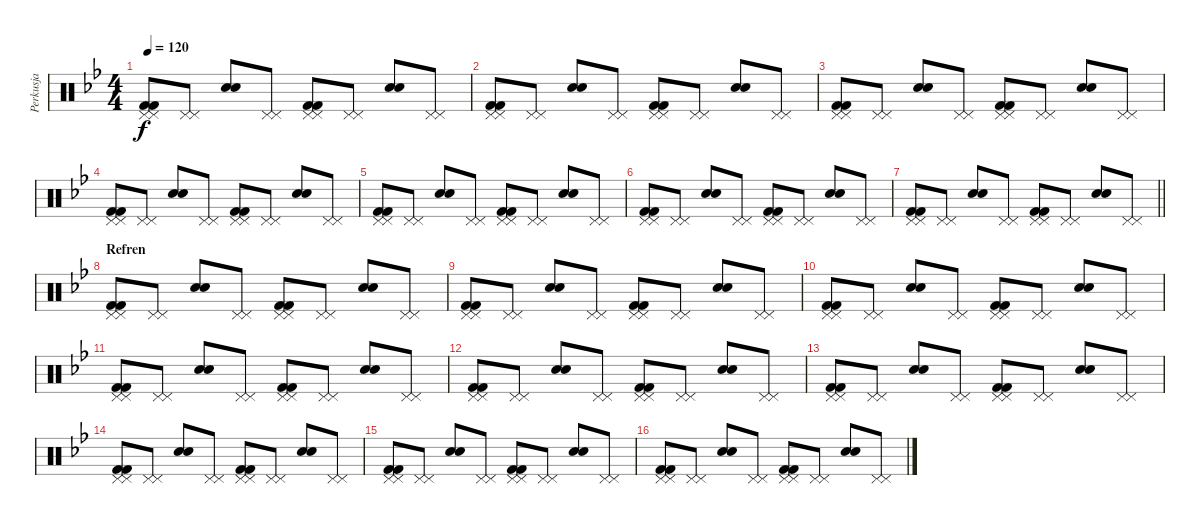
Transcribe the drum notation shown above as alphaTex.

\track ("Perkusja" "Perkusja") {instrument percussion}
\staff {score}
\articulation defaults
\ts (4 4)
\tempo 120
\clef neutral
\ks bb
("Pedal Hi-Hat (hit)" "Pedal Hi-Hat (hit)" "Kick (hit) 2" "Kick (hit) 2").8{dy f} ("Pedal Hi-Hat (hit)" "Pedal Hi-Hat (hit)").8 ("Snare (hit) 2" "Snare (hit) 2").8 ("Pedal Hi-Hat (hit)" "Pedal Hi-Hat (hit)").8 ("Pedal Hi-Hat (hit)" "Pedal Hi-Hat (hit)" "Kick (hit) 2" "Kick (hit) 2").8 ("Pedal Hi-Hat (hit)" "Pedal Hi-Hat (hit)").8 ("Snare (hit) 2" "Snare (hit) 2").8 ("Pedal Hi-Hat (hit)" "Pedal Hi-Hat (hit)").8 |
("Pedal Hi-Hat (hit)" "Pedal Hi-Hat (hit)" "Kick (hit) 2" "Kick (hit) 2").8 ("Pedal Hi-Hat (hit)" "Pedal Hi-Hat (hit)").8 ("Snare (hit) 2" "Snare (hit) 2").8 ("Pedal Hi-Hat (hit)" "Pedal Hi-Hat (hit)").8 ("Pedal Hi-Hat (hit)" "Pedal Hi-Hat (hit)" "Kick (hit) 2" "Kick (hit) 2").8 ("Pedal Hi-Hat (hit)" "Pedal Hi-Hat (hit)").8 ("Snare (hit) 2" "Snare (hit) 2").8 ("Pedal Hi-Hat (hit)" "Pedal Hi-Hat (hit)").8 |
("Pedal Hi-Hat (hit)" "Pedal Hi-Hat (hit)" "Kick (hit) 2" "Kick (hit) 2").8 ("Pedal Hi-Hat (hit)" "Pedal Hi-Hat (hit)").8 ("Snare (hit) 2" "Snare (hit) 2").8 ("Pedal Hi-Hat (hit)" "Pedal Hi-Hat (hit)").8 ("Pedal Hi-Hat (hit)" "Pedal Hi-Hat (hit)" "Kick (hit) 2" "Kick (hit) 2").8 ("Pedal Hi-Hat (hit)" "Pedal Hi-Hat (hit)").8 ("Snare (hit) 2" "Snare (hit) 2").8 ("Pedal Hi-Hat (hit)" "Pedal Hi-Hat (hit)").8 |
("Pedal Hi-Hat (hit)" "Pedal Hi-Hat (hit)" "Kick (hit) 2" "Kick (hit) 2").8 ("Pedal Hi-Hat (hit)" "Pedal Hi-Hat (hit)").8 ("Snare (hit) 2" "Snare (hit) 2").8 ("Pedal Hi-Hat (hit)" "Pedal Hi-Hat (hit)").8 ("Pedal Hi-Hat (hit)" "Pedal Hi-Hat (hit)" "Kick (hit) 2" "Kick (hit) 2").8 ("Pedal Hi-Hat (hit)" "Pedal Hi-Hat (hit)").8 ("Snare (hit) 2" "Snare (hit) 2").8 ("Pedal Hi-Hat (hit)" "Pedal Hi-Hat (hit)").8 |
("Pedal Hi-Hat (hit)" "Pedal Hi-Hat (hit)" "Kick (hit) 2" "Kick (hit) 2").8 ("Pedal Hi-Hat (hit)" "Pedal Hi-Hat (hit)").8 ("Snare (hit) 2" "Snare (hit) 2").8 ("Pedal Hi-Hat (hit)" "Pedal Hi-Hat (hit)").8 ("Pedal Hi-Hat (hit)" "Pedal Hi-Hat (hit)" "Kick (hit) 2" "Kick (hit) 2").8 ("Pedal Hi-Hat (hit)" "Pedal Hi-Hat (hit)").8 ("Snare (hit) 2" "Snare (hit) 2").8 ("Pedal Hi-Hat (hit)" "Pedal Hi-Hat (hit)").8 |
("Pedal Hi-Hat (hit)" "Pedal Hi-Hat (hit)" "Kick (hit) 2" "Kick (hit) 2").8 ("Pedal Hi-Hat (hit)" "Pedal Hi-Hat (hit)").8 ("Snare (hit) 2" "Snare (hit) 2").8 ("Pedal Hi-Hat (hit)" "Pedal Hi-Hat (hit)").8 ("Pedal Hi-Hat (hit)" "Pedal Hi-Hat (hit)" "Kick (hit) 2" "Kick (hit) 2").8 ("Pedal Hi-Hat (hit)" "Pedal Hi-Hat (hit)").8 ("Snare (hit) 2" "Snare (hit) 2").8 ("Pedal Hi-Hat (hit)" "Pedal Hi-Hat (hit)").8 |
\barLineRight lightlight
("Pedal Hi-Hat (hit)" "Pedal Hi-Hat (hit)" "Kick (hit) 2" "Kick (hit) 2").8 ("Pedal Hi-Hat (hit)" "Pedal Hi-Hat (hit)").8 ("Snare (hit) 2" "Snare (hit) 2").8 ("Pedal Hi-Hat (hit)" "Pedal Hi-Hat (hit)").8 ("Pedal Hi-Hat (hit)" "Pedal Hi-Hat (hit)" "Kick (hit) 2" "Kick (hit) 2").8 ("Pedal Hi-Hat (hit)" "Pedal Hi-Hat (hit)").8 ("Snare (hit) 2" "Snare (hit) 2").8 ("Pedal Hi-Hat (hit)" "Pedal Hi-Hat (hit)").8 |
\section ("" "Refren")
("Pedal Hi-Hat (hit)" "Pedal Hi-Hat (hit)" "Kick (hit) 2" "Kick (hit) 2").8 ("Pedal Hi-Hat (hit)" "Pedal Hi-Hat (hit)").8 ("Snare (hit) 2" "Snare (hit) 2").8 ("Pedal Hi-Hat (hit)" "Pedal Hi-Hat (hit)").8 ("Pedal Hi-Hat (hit)" "Pedal Hi-Hat (hit)" "Kick (hit) 2" "Kick (hit) 2").8 ("Pedal Hi-Hat (hit)" "Pedal Hi-Hat (hit)").8 ("Snare (hit) 2" "Snare (hit) 2").8 ("Pedal Hi-Hat (hit)" "Pedal Hi-Hat (hit)").8 |
("Pedal Hi-Hat (hit)" "Pedal Hi-Hat (hit)" "Kick (hit) 2" "Kick (hit) 2").8 ("Pedal Hi-Hat (hit)" "Pedal Hi-Hat (hit)").8 ("Snare (hit) 2" "Snare (hit) 2").8 ("Pedal Hi-Hat (hit)" "Pedal Hi-Hat (hit)").8 ("Pedal Hi-Hat (hit)" "Pedal Hi-Hat (hit)" "Kick (hit) 2" "Kick (hit) 2").8 ("Pedal Hi-Hat (hit)" "Pedal Hi-Hat (hit)").8 ("Snare (hit) 2" "Snare (hit) 2").8 ("Pedal Hi-Hat (hit)" "Pedal Hi-Hat (hit)").8 |
("Pedal Hi-Hat (hit)" "Pedal Hi-Hat (hit)" "Kick (hit) 2" "Kick (hit) 2").8 ("Pedal Hi-Hat (hit)" "Pedal Hi-Hat (hit)").8 ("Snare (hit) 2" "Snare (hit) 2").8 ("Pedal Hi-Hat (hit)" "Pedal Hi-Hat (hit)").8 ("Pedal Hi-Hat (hit)" "Pedal Hi-Hat (hit)" "Kick (hit) 2" "Kick (hit) 2").8 ("Pedal Hi-Hat (hit)" "Pedal Hi-Hat (hit)").8 ("Snare (hit) 2" "Snare (hit) 2").8 ("Pedal Hi-Hat (hit)" "Pedal Hi-Hat (hit)").8 |
("Pedal Hi-Hat (hit)" "Pedal Hi-Hat (hit)" "Kick (hit) 2" "Kick (hit) 2").8 ("Pedal Hi-Hat (hit)" "Pedal Hi-Hat (hit)").8 ("Snare (hit) 2" "Snare (hit) 2").8 ("Pedal Hi-Hat (hit)" "Pedal Hi-Hat (hit)").8 ("Pedal Hi-Hat (hit)" "Pedal Hi-Hat (hit)" "Kick (hit) 2" "Kick (hit) 2").8 ("Pedal Hi-Hat (hit)" "Pedal Hi-Hat (hit)").8 ("Snare (hit) 2" "Snare (hit) 2").8 ("Pedal Hi-Hat (hit)" "Pedal Hi-Hat (hit)").8 |
("Pedal Hi-Hat (hit)" "Pedal Hi-Hat (hit)" "Kick (hit) 2" "Kick (hit) 2").8 ("Pedal Hi-Hat (hit)" "Pedal Hi-Hat (hit)").8 ("Snare (hit) 2" "Snare (hit) 2").8 ("Pedal Hi-Hat (hit)" "Pedal Hi-Hat (hit)").8 ("Pedal Hi-Hat (hit)" "Pedal Hi-Hat (hit)" "Kick (hit) 2" "Kick (hit) 2").8 ("Pedal Hi-Hat (hit)" "Pedal Hi-Hat (hit)").8 ("Snare (hit) 2" "Snare (hit) 2").8 ("Pedal Hi-Hat (hit)" "Pedal Hi-Hat (hit)").8 |
("Pedal Hi-Hat (hit)" "Pedal Hi-Hat (hit)" "Kick (hit) 2" "Kick (hit) 2").8 ("Pedal Hi-Hat (hit)" "Pedal Hi-Hat (hit)").8 ("Snare (hit) 2" "Snare (hit) 2").8 ("Pedal Hi-Hat (hit)" "Pedal Hi-Hat (hit)").8 ("Pedal Hi-Hat (hit)" "Pedal Hi-Hat (hit)" "Kick (hit) 2" "Kick (hit) 2").8 ("Pedal Hi-Hat (hit)" "Pedal Hi-Hat (hit)").8 ("Snare (hit) 2" "Snare (hit) 2").8 ("Pedal Hi-Hat (hit)" "Pedal Hi-Hat (hit)").8 |
("Pedal Hi-Hat (hit)" "Pedal Hi-Hat (hit)" "Kick (hit) 2" "Kick (hit) 2").8 ("Pedal Hi-Hat (hit)" "Pedal Hi-Hat (hit)").8 ("Snare (hit) 2" "Snare (hit) 2").8 ("Pedal Hi-Hat (hit)" "Pedal Hi-Hat (hit)").8 ("Pedal Hi-Hat (hit)" "Pedal Hi-Hat (hit)" "Kick (hit) 2" "Kick (hit) 2").8 ("Pedal Hi-Hat (hit)" "Pedal Hi-Hat (hit)").8 ("Snare (hit) 2" "Snare (hit) 2").8 ("Pedal Hi-Hat (hit)" "Pedal Hi-Hat (hit)").8 |
("Pedal Hi-Hat (hit)" "Pedal Hi-Hat (hit)" "Kick (hit) 2" "Kick (hit) 2").8 ("Pedal Hi-Hat (hit)" "Pedal Hi-Hat (hit)").8 ("Snare (hit) 2" "Snare (hit) 2").8 ("Pedal Hi-Hat (hit)" "Pedal Hi-Hat (hit)").8 ("Pedal Hi-Hat (hit)" "Pedal Hi-Hat (hit)" "Kick (hit) 2" "Kick (hit) 2").8 ("Pedal Hi-Hat (hit)" "Pedal Hi-Hat (hit)").8 ("Snare (hit) 2" "Snare (hit) 2").8 ("Pedal Hi-Hat (hit)" "Pedal Hi-Hat (hit)").8 |
("Pedal Hi-Hat (hit)" "Pedal Hi-Hat (hit)" "Kick (hit) 2" "Kick (hit) 2").8 ("Pedal Hi-Hat (hit)" "Pedal Hi-Hat (hit)").8 ("Snare (hit) 2" "Snare (hit) 2").8 ("Pedal Hi-Hat (hit)" "Pedal Hi-Hat (hit)").8 ("Pedal Hi-Hat (hit)" "Pedal Hi-Hat (hit)" "Kick (hit) 2" "Kick (hit) 2").8 ("Pedal Hi-Hat (hit)" "Pedal Hi-Hat (hit)").8 ("Snare (hit) 2" "Snare (hit) 2").8 ("Pedal Hi-Hat (hit)" "Pedal Hi-Hat (hit)").8
